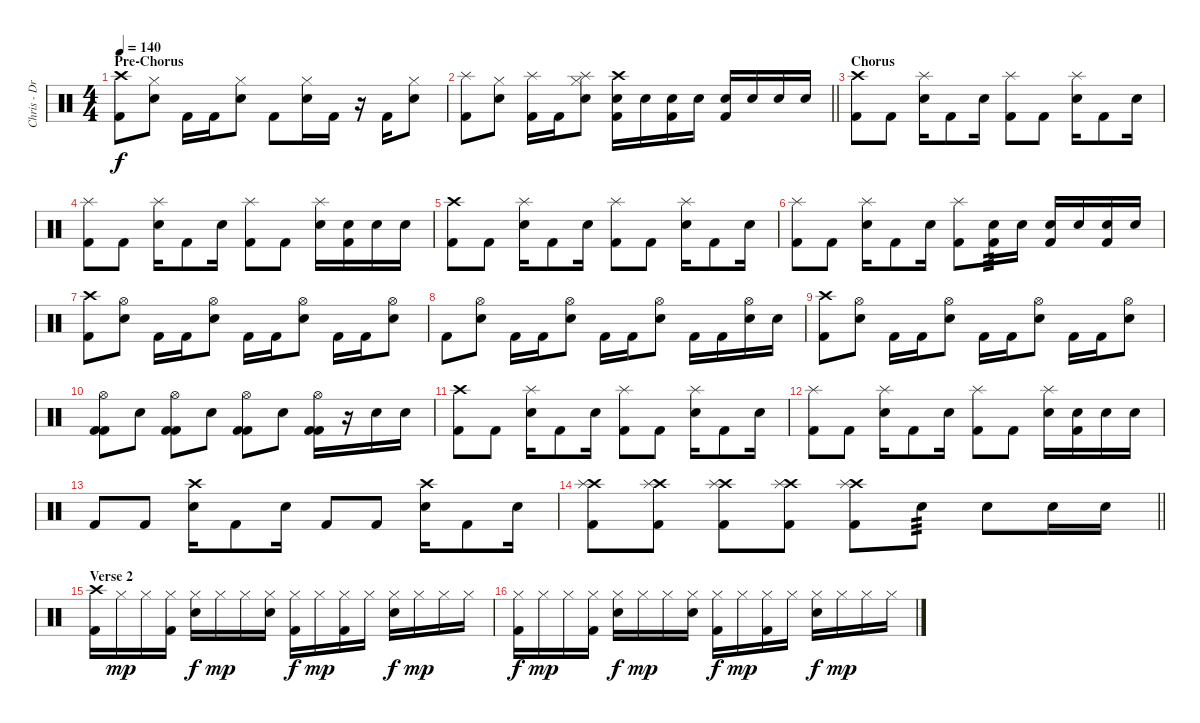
\track ("Chris - Drums" "Chris - Dr") {instrument percussion}
\staff {score}
\articulation defaults
\ts (4 4)
\section ("" "Pre-Chorus")
\tempo 140
\clef neutral
\ks c
("Crash high (hit)" "Kick (hit) 2").8{dy f} ("Hi-Hat (closed)" "Electric Snare (hit)").8 "Kick (hit) 2".16 "Kick (hit) 2".16 ("Hi-Hat (closed)" "Electric Snare (hit)").8 "Kick (hit) 2".8 ("Hi-Hat (closed)" "Electric Snare (hit)").16 "Kick (hit) 2".16 r.16 "Kick (hit) 2".16 ("Hi-Hat (closed)" "Electric Snare (hit)").8 |
\barLineRight lightlight
("Splash (hit)" "Kick (hit) 2").8 ("Hi-Hat (closed)" "Electric Snare (hit)").8 ("Splash (hit)" "Kick (hit) 2").16 "Kick (hit) 2".16 ("Hi-Hat (closed)" "Splash (hit)" "Electric Snare (hit)").8 ("Crash high (hit)" "Electric Snare (hit)" "Kick (hit) 2").16 "Electric Snare (hit)".16 ("Electric Snare (hit)" "Kick (hit) 2").16 "Electric Snare (hit)".16 ("Electric Snare (hit)" "Kick (hit) 2").16 "Electric Snare (hit)".16 "Electric Snare (hit)".16 "Electric Snare (hit)".16 |
\section ("" "Chorus")
("Crash high (hit)" "Kick (hit) 2").8 "Kick (hit) 2".8 ("Splash (hit)" "Electric Snare (hit)").16 "Kick (hit) 2".8 "Electric Snare (hit)".16 ("Splash (hit)" "Kick (hit) 2").8 "Kick (hit) 2".8 ("Splash (hit)" "Electric Snare (hit)").16 "Kick (hit) 2".8 "Electric Snare (hit)".16 |
("Splash (hit)" "Kick (hit) 2").8 "Kick (hit) 2".8 ("Splash (hit)" "Electric Snare (hit)").16 "Kick (hit) 2".8 "Electric Snare (hit)".16 ("Splash (hit)" "Kick (hit) 2").8 "Kick (hit) 2".8 ("Splash (hit)" "Electric Snare (hit)").16 ("Electric Snare (hit)" "Kick (hit) 2").16 "Electric Snare (hit)".16 "Electric Snare (hit)".16 |
("Crash high (hit)" "Kick (hit) 2").8 "Kick (hit) 2".8 ("Splash (hit)" "Electric Snare (hit)").16 "Kick (hit) 2".8 "Electric Snare (hit)".16 ("Splash (hit)" "Kick (hit) 2").8 "Kick (hit) 2".8 ("Splash (hit)" "Electric Snare (hit)").16 "Kick (hit) 2".8 "Electric Snare (hit)".16 |
("Splash (hit)" "Kick (hit) 2").8 "Kick (hit) 2".8 ("Splash (hit)" "Electric Snare (hit)").16 "Kick (hit) 2".8 "Electric Snare (hit)".16 ("Splash (hit)" "Kick (hit) 2").8 ("Electric Snare (hit)" "Kick (hit) 2").16{tp 3} "Electric Snare (hit)".16 ("Electric Snare (hit)" "Kick (hit) 2").16 "Electric Snare (hit)".16 ("Electric Snare (hit)" "Kick (hit) 2").16 "Electric Snare (hit)".16 |
("Crash high (hit)" "Kick (hit) 2").8 ("Hi-Hat (open)" "Electric Snare (hit)").8 "Kick (hit) 2".16 "Kick (hit) 2".16 ("Hi-Hat (open)" "Electric Snare (hit)").8 "Kick (hit) 2".16 "Kick (hit) 2".16 ("Hi-Hat (open)" "Electric Snare (hit)").8 "Kick (hit) 2".16 "Kick (hit) 2".16 ("Hi-Hat (open)" "Electric Snare (hit)").8 |
"Kick (hit) 2".8 ("Hi-Hat (open)" "Electric Snare (hit)").8 "Kick (hit) 2".16 "Kick (hit) 2".16 ("Hi-Hat (open)" "Electric Snare (hit)").8 "Kick (hit) 2".16 "Kick (hit) 2".16 ("Hi-Hat (open)" "Electric Snare (hit)").8 "Kick (hit) 2".16 "Kick (hit) 2".16 ("Hi-Hat (open)" "Electric Snare (hit)").16 "Electric Snare (hit)".16 |
("Crash high (hit)" "Kick (hit) 2").8 ("Hi-Hat (open)" "Electric Snare (hit)").8 "Kick (hit) 2".16 "Kick (hit) 2".16 ("Hi-Hat (open)" "Electric Snare (hit)").8 "Kick (hit) 2".16 "Kick (hit) 2".16 ("Hi-Hat (open)" "Electric Snare (hit)").8 "Kick (hit) 2".16 "Kick (hit) 2".16 ("Hi-Hat (open)" "Electric Snare (hit)").8 |
("Hi-Hat (open)" "Kick (hit) 2" "Kick (hit) 2").8 "Electric Snare (hit)".8 ("Hi-Hat (open)" "Kick (hit) 2" "Kick (hit) 2").8 "Electric Snare (hit)".8 ("Hi-Hat (open)" "Kick (hit) 2" "Kick (hit) 2").8 "Electric Snare (hit)".8 ("Hi-Hat (open)" "Kick (hit) 2" "Kick (hit) 2").16 r.16 "Electric Snare (hit)".16 "Electric Snare (hit)".16 |
("Crash high (hit)" "Kick (hit) 2").8 "Kick (hit) 2".8 ("Splash (hit)" "Electric Snare (hit)").16 "Kick (hit) 2".8 "Electric Snare (hit)".16 ("Splash (hit)" "Kick (hit) 2").8 "Kick (hit) 2".8 ("Splash (hit)" "Electric Snare (hit)").16 "Kick (hit) 2".8 "Electric Snare (hit)".16 |
("Splash (hit)" "Kick (hit) 2").8 "Kick (hit) 2".8 ("Splash (hit)" "Electric Snare (hit)").16 "Kick (hit) 2".8 "Electric Snare (hit)".16 ("Splash (hit)" "Kick (hit) 2").8 "Kick (hit) 2".8 ("Splash (hit)" "Electric Snare (hit)").16 ("Electric Snare (hit)" "Kick (hit) 2").16 "Electric Snare (hit)".16 "Electric Snare (hit)".16 |
"Kick (hit) 2".8 "Kick (hit) 2".8 ("Crash high (hit)" "Electric Snare (hit)").16 "Kick (hit) 2".8 "Electric Snare (hit)".16 "Kick (hit) 2".8 "Kick (hit) 2".8 ("Crash high (hit)" "Electric Snare (hit)").16 "Kick (hit) 2".8 "Electric Snare (hit)".16 |
\barLineRight lightlight
("Crash high (hit)" "Splash (hit)" "Kick (hit) 2").8 ("Crash high (hit)" "Splash (hit)" "Kick (hit) 2").8 ("Crash high (hit)" "Splash (hit)" "Kick (hit) 2").8 ("Crash high (hit)" "Splash (hit)" "Kick (hit) 2").8 ("Crash high (hit)" "Splash (hit)" "Kick (hit) 2").8 "Electric Snare (hit)".8{tp 3} "Electric Snare (hit)".8 "Electric Snare (hit)".16 "Electric Snare (hit)".16 |
\section ("" "Verse 2")
("Crash high (hit)" "Kick (hit) 2").16 "Hi-Hat (closed)".16{dy mp} "Hi-Hat (closed)".16 ("Hi-Hat (closed)" "Kick (hit) 2").16 ("Hi-Hat (closed)" "Electric Snare (hit)").16{dy f} "Hi-Hat (closed)".16{dy mp} "Hi-Hat (closed)".16 ("Hi-Hat (closed)" "Electric Snare (hit)").16 ("Hi-Hat (closed)" "Kick (hit) 2").16{dy f} "Hi-Hat (closed)".16{dy mp} ("Hi-Hat (closed)" "Kick (hit) 2").16 "Hi-Hat (closed)".16 ("Hi-Hat (closed)" "Electric Snare (hit)").16{dy f} "Hi-Hat (closed)".16{dy mp} "Hi-Hat (closed)".16 "Hi-Hat (closed)".16 |
("Hi-Hat (closed)" "Kick (hit) 2").16{dy f} "Hi-Hat (closed)".16{dy mp} "Hi-Hat (closed)".16 ("Hi-Hat (closed)" "Kick (hit) 2").16 ("Hi-Hat (closed)" "Electric Snare (hit)").16{dy f} "Hi-Hat (closed)".16{dy mp} "Hi-Hat (closed)".16 ("Hi-Hat (closed)" "Electric Snare (hit)").16 ("Hi-Hat (closed)" "Kick (hit) 2").16{dy f} "Hi-Hat (closed)".16{dy mp} ("Hi-Hat (closed)" "Kick (hit) 2").16 "Hi-Hat (closed)".16 ("Hi-Hat (closed)" "Electric Snare (hit)").16{dy f} "Hi-Hat (closed)".16{dy mp} "Hi-Hat (closed)".16 "Hi-Hat (closed)".16
